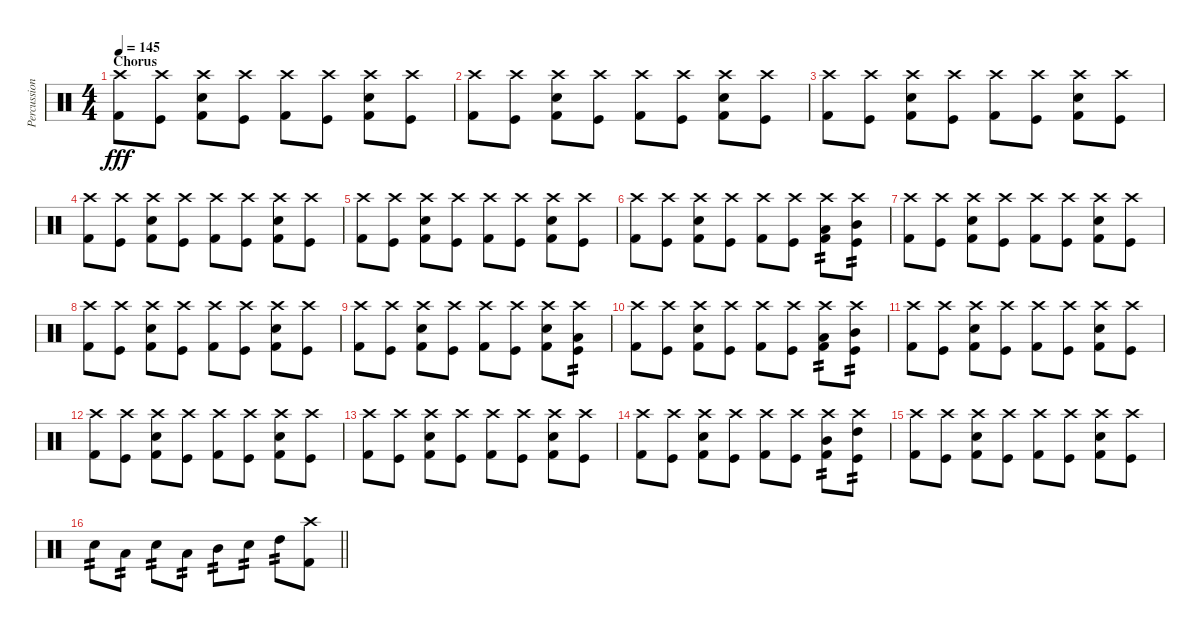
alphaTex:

\track ("Percussion" "Percussion") {instrument percussion}
\staff {score}
\articulation defaults
\ts (4 4)
\section ("" "Chorus")
\tempo 145
\clef neutral
\ks c
("Crash high (hit)" "Kick (hit) 2").8{dy fff} ("Crash high (hit)" "Kick (hit)").8 ("Crash high (hit)" "Snare (hit) 2" "Kick (hit) 2").8 ("Crash high (hit)" "Kick (hit)").8 ("Crash high (hit)" "Kick (hit) 2").8 ("Crash high (hit)" "Kick (hit)").8 ("Crash high (hit)" "Snare (hit) 2" "Kick (hit) 2").8 ("Crash high (hit)" "Kick (hit)").8 |
("Crash high (hit)" "Kick (hit) 2").8 ("Crash high (hit)" "Kick (hit)").8 ("Crash high (hit)" "Snare (hit) 2" "Kick (hit) 2").8 ("Crash high (hit)" "Kick (hit)").8 ("Crash high (hit)" "Kick (hit) 2").8 ("Crash high (hit)" "Kick (hit)").8 ("Crash high (hit)" "Snare (hit) 2" "Kick (hit) 2").8 ("Crash high (hit)" "Kick (hit)").8 |
("Crash high (hit)" "Kick (hit) 2").8 ("Crash high (hit)" "Kick (hit)").8 ("Crash high (hit)" "Snare (hit) 2" "Kick (hit) 2").8 ("Crash high (hit)" "Kick (hit)").8 ("Crash high (hit)" "Kick (hit) 2").8 ("Crash high (hit)" "Kick (hit)").8 ("Crash high (hit)" "Snare (hit) 2" "Kick (hit) 2").8 ("Crash high (hit)" "Kick (hit)").8 |
("Crash high (hit)" "Kick (hit) 2").8 ("Crash high (hit)" "Kick (hit)").8 ("Crash high (hit)" "Snare (hit) 2" "Kick (hit) 2").8 ("Crash high (hit)" "Kick (hit)").8 ("Crash high (hit)" "Kick (hit) 2").8 ("Crash high (hit)" "Kick (hit)").8 ("Crash high (hit)" "Snare (hit) 2" "Kick (hit) 2").8 ("Crash high (hit)" "Kick (hit)").8 |
("Crash high (hit)" "Kick (hit) 2").8 ("Crash high (hit)" "Kick (hit)").8 ("Crash high (hit)" "Snare (hit) 2" "Kick (hit) 2").8 ("Crash high (hit)" "Kick (hit)").8 ("Crash high (hit)" "Kick (hit) 2").8 ("Crash high (hit)" "Kick (hit)").8 ("Crash high (hit)" "Snare (hit) 2" "Kick (hit) 2").8 ("Crash high (hit)" "Kick (hit)").8 |
("Crash high (hit)" "Kick (hit) 2").8 ("Crash high (hit)" "Kick (hit)").8 ("Crash high (hit)" "Snare (hit) 2" "Kick (hit) 2").8 ("Crash high (hit)" "Kick (hit)").8 ("Crash high (hit)" "Kick (hit) 2").8 ("Crash high (hit)" "Kick (hit)").8 ("Crash high (hit)" "Low Tom (hit)" "Kick (hit) 2").8{tp 2} ("Crash high (hit)" "Mid Tom (hit)" "Kick (hit)").8{tp 2} |
("Crash high (hit)" "Kick (hit) 2").8 ("Crash high (hit)" "Kick (hit)").8 ("Crash high (hit)" "Snare (hit) 2" "Kick (hit) 2").8 ("Crash high (hit)" "Kick (hit)").8 ("Crash high (hit)" "Kick (hit) 2").8 ("Crash high (hit)" "Kick (hit)").8 ("Crash high (hit)" "Snare (hit) 2" "Kick (hit) 2").8 ("Crash high (hit)" "Kick (hit)").8 |
("Crash high (hit)" "Kick (hit) 2").8 ("Crash high (hit)" "Kick (hit)").8 ("Crash high (hit)" "Snare (hit) 2" "Kick (hit) 2").8 ("Crash high (hit)" "Kick (hit)").8 ("Crash high (hit)" "Kick (hit) 2").8 ("Crash high (hit)" "Kick (hit)").8 ("Crash high (hit)" "Snare (hit) 2" "Kick (hit) 2").8 ("Crash high (hit)" "Kick (hit)").8 |
("Crash high (hit)" "Kick (hit) 2").8 ("Crash high (hit)" "Kick (hit)").8 ("Crash high (hit)" "Snare (hit) 2" "Kick (hit) 2").8 ("Crash high (hit)" "Kick (hit)").8 ("Crash high (hit)" "Kick (hit) 2").8 ("Crash high (hit)" "Kick (hit)").8 ("Crash high (hit)" "Snare (hit) 2" "Kick (hit) 2").8 ("Crash high (hit)" "Low Tom (hit)" "Kick (hit)").8{tp 2} |
("Crash high (hit)" "Kick (hit) 2").8 ("Crash high (hit)" "Kick (hit)").8 ("Crash high (hit)" "Snare (hit) 2" "Kick (hit) 2").8 ("Crash high (hit)" "Kick (hit)").8 ("Crash high (hit)" "Kick (hit) 2").8 ("Crash high (hit)" "Kick (hit)").8 ("Crash high (hit)" "Low Tom (hit)" "Kick (hit) 2").8{tp 2} ("Crash high (hit)" "Mid Tom (hit)" "Kick (hit)").8{tp 2} |
("Crash high (hit)" "Kick (hit) 2").8 ("Crash high (hit)" "Kick (hit)").8 ("Crash high (hit)" "Snare (hit) 2" "Kick (hit) 2").8 ("Crash high (hit)" "Kick (hit)").8 ("Crash high (hit)" "Kick (hit) 2").8 ("Crash high (hit)" "Kick (hit)").8 ("Crash high (hit)" "Snare (hit) 2" "Kick (hit) 2").8 ("Crash high (hit)" "Kick (hit)").8 |
("Crash high (hit)" "Kick (hit) 2").8 ("Crash high (hit)" "Kick (hit)").8 ("Crash high (hit)" "Snare (hit) 2" "Kick (hit) 2").8 ("Crash high (hit)" "Kick (hit)").8 ("Crash high (hit)" "Kick (hit) 2").8 ("Crash high (hit)" "Kick (hit)").8 ("Crash high (hit)" "Snare (hit) 2" "Kick (hit) 2").8 ("Crash high (hit)" "Kick (hit)").8 |
("Crash high (hit)" "Kick (hit) 2").8 ("Crash high (hit)" "Kick (hit)").8 ("Crash high (hit)" "Snare (hit) 2" "Kick (hit) 2").8 ("Crash high (hit)" "Kick (hit)").8 ("Crash high (hit)" "Kick (hit) 2").8 ("Crash high (hit)" "Kick (hit)").8 ("Crash high (hit)" "Snare (hit) 2" "Kick (hit) 2").8 ("Crash high (hit)" "Kick (hit)").8 |
("Crash high (hit)" "Kick (hit) 2").8 ("Crash high (hit)" "Kick (hit)").8 ("Crash high (hit)" "Snare (hit) 2" "Kick (hit) 2").8 ("Crash high (hit)" "Kick (hit)").8 ("Crash high (hit)" "Kick (hit) 2").8 ("Crash high (hit)" "Kick (hit)").8 ("Crash high (hit)" "Mid Tom (hit)" "Kick (hit) 2").8{tp 2} ("Crash high (hit)" "High Tom (hit)" "Kick (hit)").8{tp 2} |
("Crash high (hit)" "Kick (hit) 2").8 ("Crash high (hit)" "Kick (hit)").8 ("Crash high (hit)" "Snare (hit) 2" "Kick (hit) 2").8 ("Crash high (hit)" "Kick (hit)").8 ("Crash high (hit)" "Kick (hit) 2").8 ("Crash high (hit)" "Kick (hit)").8 ("Crash high (hit)" "Snare (hit) 2" "Kick (hit) 2").8 ("Crash high (hit)" "Kick (hit)").8 |
\barLineRight lightlight "Snare (hit) 2".8{tp 2} "Low Tom (hit)".8{tp 2} "Snare (hit) 2".8{tp 2} "Low Tom (hit)".8{tp 2} "Mid Tom (hit)".8{tp 2} "Snare (hit) 2".8{tp 2} "High Tom (hit)".8{tp 2}
("Crash high (hit)" "Kick (hit) 2").8
